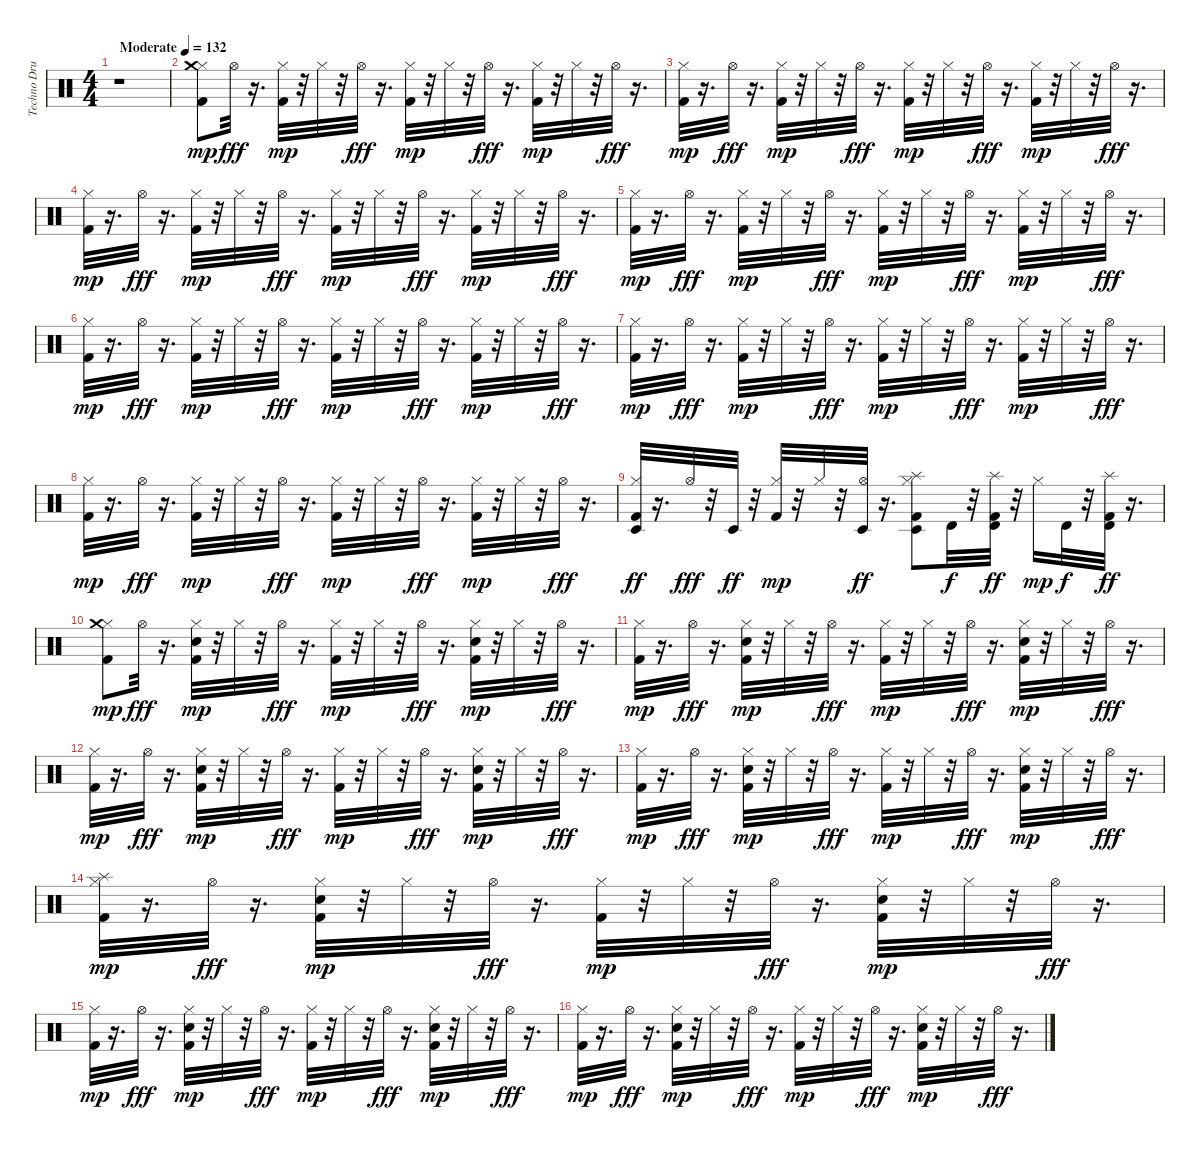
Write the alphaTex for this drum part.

\track ("Techno Drums" "Techno Dru") {instrument percussion}
\staff {score}
\articulation defaults
\ts (4 4)
\tempo (132 "Moderate")
\clef neutral
\ks c
r.1{dy mp} |
("Kick (hit) 2" "Hi-Hat (closed)" "Crash medium (hit)").8 "Hi-Hat (open)".32{dy fff} r.16{d} ("Kick (hit) 2" "Hi-Hat (closed)").32{dy mp} r.32 "Hi-Hat (closed)".32 r.32 "Hi-Hat (open)".32{dy fff} r.16{d} ("Kick (hit) 2" "Hi-Hat (closed)").32{dy mp} r.32 "Hi-Hat (closed)".32 r.32 "Hi-Hat (open)".32{dy fff} r.16{d} ("Kick (hit) 2" "Hi-Hat (closed)").32{dy mp} r.32 "Hi-Hat (closed)".32 r.32 "Hi-Hat (open)".32{dy fff} r.16{d} |
("Kick (hit) 2" "Hi-Hat (closed)").32{dy mp} r.16{d} "Hi-Hat (open)".32{dy fff} r.16{d} ("Kick (hit) 2" "Hi-Hat (closed)").32{dy mp} r.32 "Hi-Hat (closed)".32 r.32 "Hi-Hat (open)".32{dy fff} r.16{d} ("Kick (hit) 2" "Hi-Hat (closed)").32{dy mp} r.32 "Hi-Hat (closed)".32 r.32 "Hi-Hat (open)".32{dy fff} r.16{d} ("Kick (hit) 2" "Hi-Hat (closed)").32{dy mp} r.32 "Hi-Hat (closed)".32 r.32 "Hi-Hat (open)".32{dy fff} r.16{d} |
("Kick (hit) 2" "Hi-Hat (closed)").32{dy mp} r.16{d} "Hi-Hat (open)".32{dy fff} r.16{d} ("Kick (hit) 2" "Hi-Hat (closed)").32{dy mp} r.32 "Hi-Hat (closed)".32 r.32 "Hi-Hat (open)".32{dy fff} r.16{d} ("Kick (hit) 2" "Hi-Hat (closed)").32{dy mp} r.32 "Hi-Hat (closed)".32 r.32 "Hi-Hat (open)".32{dy fff} r.16{d} ("Kick (hit) 2" "Hi-Hat (closed)").32{dy mp} r.32 "Hi-Hat (closed)".32 r.32 "Hi-Hat (open)".32{dy fff} r.16{d} |
("Kick (hit) 2" "Hi-Hat (closed)").32{dy mp} r.16{d} "Hi-Hat (open)".32{dy fff} r.16{d} ("Kick (hit) 2" "Hi-Hat (closed)").32{dy mp} r.32 "Hi-Hat (closed)".32 r.32 "Hi-Hat (open)".32{dy fff} r.16{d} ("Kick (hit) 2" "Hi-Hat (closed)").32{dy mp} r.32 "Hi-Hat (closed)".32 r.32 "Hi-Hat (open)".32{dy fff} r.16{d} ("Kick (hit) 2" "Hi-Hat (closed)").32{dy mp} r.32 "Hi-Hat (closed)".32 r.32 "Hi-Hat (open)".32{dy fff} r.16{d} |
("Kick (hit) 2" "Hi-Hat (closed)").32{dy mp} r.16{d} "Hi-Hat (open)".32{dy fff} r.16{d} ("Kick (hit) 2" "Hi-Hat (closed)").32{dy mp} r.32 "Hi-Hat (closed)".32 r.32 "Hi-Hat (open)".32{dy fff} r.16{d} ("Kick (hit) 2" "Hi-Hat (closed)").32{dy mp} r.32 "Hi-Hat (closed)".32 r.32 "Hi-Hat (open)".32{dy fff} r.16{d} ("Kick (hit) 2" "Hi-Hat (closed)").32{dy mp} r.32 "Hi-Hat (closed)".32 r.32 "Hi-Hat (open)".32{dy fff} r.16{d} |
("Kick (hit) 2" "Hi-Hat (closed)").32{dy mp} r.16{d} "Hi-Hat (open)".32{dy fff} r.16{d} ("Kick (hit) 2" "Hi-Hat (closed)").32{dy mp} r.32 "Hi-Hat (closed)".32 r.32 "Hi-Hat (open)".32{dy fff} r.16{d} ("Kick (hit) 2" "Hi-Hat (closed)").32{dy mp} r.32 "Hi-Hat (closed)".32 r.32 "Hi-Hat (open)".32{dy fff} r.16{d} ("Kick (hit) 2" "Hi-Hat (closed)").32{dy mp} r.32 "Hi-Hat (closed)".32 r.32 "Hi-Hat (open)".32{dy fff} r.16{d} |
("Kick (hit) 2" "Hi-Hat (closed)").32{dy mp} r.16{d} "Hi-Hat (open)".32{dy fff} r.16{d} ("Kick (hit) 2" "Hi-Hat (closed)").32{dy mp} r.32 "Hi-Hat (closed)".32 r.32 "Hi-Hat (open)".32{dy fff} r.16{d} ("Kick (hit) 2" "Hi-Hat (closed)").32{dy mp} r.32 "Hi-Hat (closed)".32 r.32 "Hi-Hat (open)".32{dy fff} r.16{d} ("Kick (hit) 2" "Hi-Hat (closed)").32{dy mp} r.32 "Hi-Hat (closed)".32 r.32 "Hi-Hat (open)".32{dy fff} r.16{d} |
("Kick (hit) 2" "Hi-Hat (closed)" "Timbale low (hit)").32{dy ff} r.16{d} "Hi-Hat (open)".32{dy fff} r.32 "Timbale low (hit)".32{dy ff} r.32 ("Kick (hit) 2" "Hi-Hat (closed)").32{dy mp} r.32 "Hi-Hat (closed)".32 r.32 ("Hi-Hat (open)" "Timbale low (hit)").32{dy ff} r.16{d} ("Hi-Hat (closed)" "Timbale low (hit)" "Kick (hit) 2" "Splash (hit)").8 "Timbale high (hit)".32{dy f} r.32 ("Timbale high (hit)" "Kick (hit) 2" "Splash (hit)").32{dy ff} r.32 "Hi-Hat (closed)".16{dy mp} "Timbale high (hit)".32{dy f} r.32 ("Timbale high (hit)" "Kick (hit) 2" "Splash (hit)").32{dy ff} r.16{d} |
("Kick (hit) 2" "Hi-Hat (closed)" "Crash medium (hit)").8{dy mp} "Hi-Hat (open)".32{dy fff} r.16{d} ("Kick (hit) 2" "Hand Clap (hit)" "Hi-Hat (closed)").32{dy mp} r.32 "Hi-Hat (closed)".32 r.32 "Hi-Hat (open)".32{dy fff} r.16{d} ("Kick (hit) 2" "Hi-Hat (closed)").32{dy mp} r.32 "Hi-Hat (closed)".32 r.32 "Hi-Hat (open)".32{dy fff} r.16{d} ("Kick (hit) 2" "Hand Clap (hit)" "Hi-Hat (closed)").32{dy mp} r.32 "Hi-Hat (closed)".32 r.32 "Hi-Hat (open)".32{dy fff} r.16{d} |
("Kick (hit) 2" "Hi-Hat (closed)").32{dy mp} r.16{d} "Hi-Hat (open)".32{dy fff} r.16{d} ("Kick (hit) 2" "Hand Clap (hit)" "Hi-Hat (closed)").32{dy mp} r.32 "Hi-Hat (closed)".32 r.32 "Hi-Hat (open)".32{dy fff} r.16{d} ("Kick (hit) 2" "Hi-Hat (closed)").32{dy mp} r.32 "Hi-Hat (closed)".32 r.32 "Hi-Hat (open)".32{dy fff} r.16{d} ("Kick (hit) 2" "Hand Clap (hit)" "Hi-Hat (closed)").32{dy mp} r.32 "Hi-Hat (closed)".32 r.32 "Hi-Hat (open)".32{dy fff} r.16{d} |
("Kick (hit) 2" "Hi-Hat (closed)").32{dy mp} r.16{d} "Hi-Hat (open)".32{dy fff} r.16{d} ("Kick (hit) 2" "Hand Clap (hit)" "Hi-Hat (closed)").32{dy mp} r.32 "Hi-Hat (closed)".32 r.32 "Hi-Hat (open)".32{dy fff} r.16{d} ("Kick (hit) 2" "Hi-Hat (closed)").32{dy mp} r.32 "Hi-Hat (closed)".32 r.32 "Hi-Hat (open)".32{dy fff} r.16{d} ("Kick (hit) 2" "Hand Clap (hit)" "Hi-Hat (closed)").32{dy mp} r.32 "Hi-Hat (closed)".32 r.32 "Hi-Hat (open)".32{dy fff} r.16{d} |
("Kick (hit) 2" "Hi-Hat (closed)").32{dy mp} r.16{d} "Hi-Hat (open)".32{dy fff} r.16{d} ("Kick (hit) 2" "Hand Clap (hit)" "Hi-Hat (closed)").32{dy mp} r.32 "Hi-Hat (closed)".32 r.32 "Hi-Hat (open)".32{dy fff} r.16{d} ("Kick (hit) 2" "Hi-Hat (closed)").32{dy mp} r.32 "Hi-Hat (closed)".32 r.32 "Hi-Hat (open)".32{dy fff} r.16{d} ("Kick (hit) 2" "Hand Clap (hit)" "Hi-Hat (closed)").32{dy mp} r.32 "Hi-Hat (closed)".32 r.32 "Hi-Hat (open)".32{dy fff} r.16{d} |
("Kick (hit) 2" "Hi-Hat (closed)" "Splash (hit)").32{dy mp} r.16{d} "Hi-Hat (open)".32{dy fff} r.16{d} ("Kick (hit) 2" "Hand Clap (hit)" "Hi-Hat (closed)").32{dy mp} r.32 "Hi-Hat (closed)".32 r.32 "Hi-Hat (open)".32{dy fff} r.16{d} ("Kick (hit) 2" "Hi-Hat (closed)").32{dy mp} r.32 "Hi-Hat (closed)".32 r.32 "Hi-Hat (open)".32{dy fff} r.16{d} ("Kick (hit) 2" "Hand Clap (hit)" "Hi-Hat (closed)").32{dy mp} r.32 "Hi-Hat (closed)".32 r.32 "Hi-Hat (open)".32{dy fff} r.16{d} |
("Kick (hit) 2" "Hi-Hat (closed)").32{dy mp} r.16{d} "Hi-Hat (open)".32{dy fff} r.16{d} ("Kick (hit) 2" "Hand Clap (hit)" "Hi-Hat (closed)").32{dy mp} r.32 "Hi-Hat (closed)".32 r.32 "Hi-Hat (open)".32{dy fff} r.16{d} ("Kick (hit) 2" "Hi-Hat (closed)").32{dy mp} r.32 "Hi-Hat (closed)".32 r.32 "Hi-Hat (open)".32{dy fff} r.16{d} ("Kick (hit) 2" "Hand Clap (hit)" "Hi-Hat (closed)").32{dy mp} r.32 "Hi-Hat (closed)".32 r.32 "Hi-Hat (open)".32{dy fff} r.16{d} |
("Kick (hit) 2" "Hi-Hat (closed)").32{dy mp} r.16{d} "Hi-Hat (open)".32{dy fff} r.16{d} ("Kick (hit) 2" "Hand Clap (hit)" "Hi-Hat (closed)").32{dy mp} r.32 "Hi-Hat (closed)".32 r.32 "Hi-Hat (open)".32{dy fff} r.16{d} ("Kick (hit) 2" "Hi-Hat (closed)").32{dy mp} r.32 "Hi-Hat (closed)".32 r.32 "Hi-Hat (open)".32{dy fff} r.16{d} ("Kick (hit) 2" "Hand Clap (hit)" "Hi-Hat (closed)").32{dy mp} r.32 "Hi-Hat (closed)".32 r.32 "Hi-Hat (open)".32{dy fff} r.16{d}
